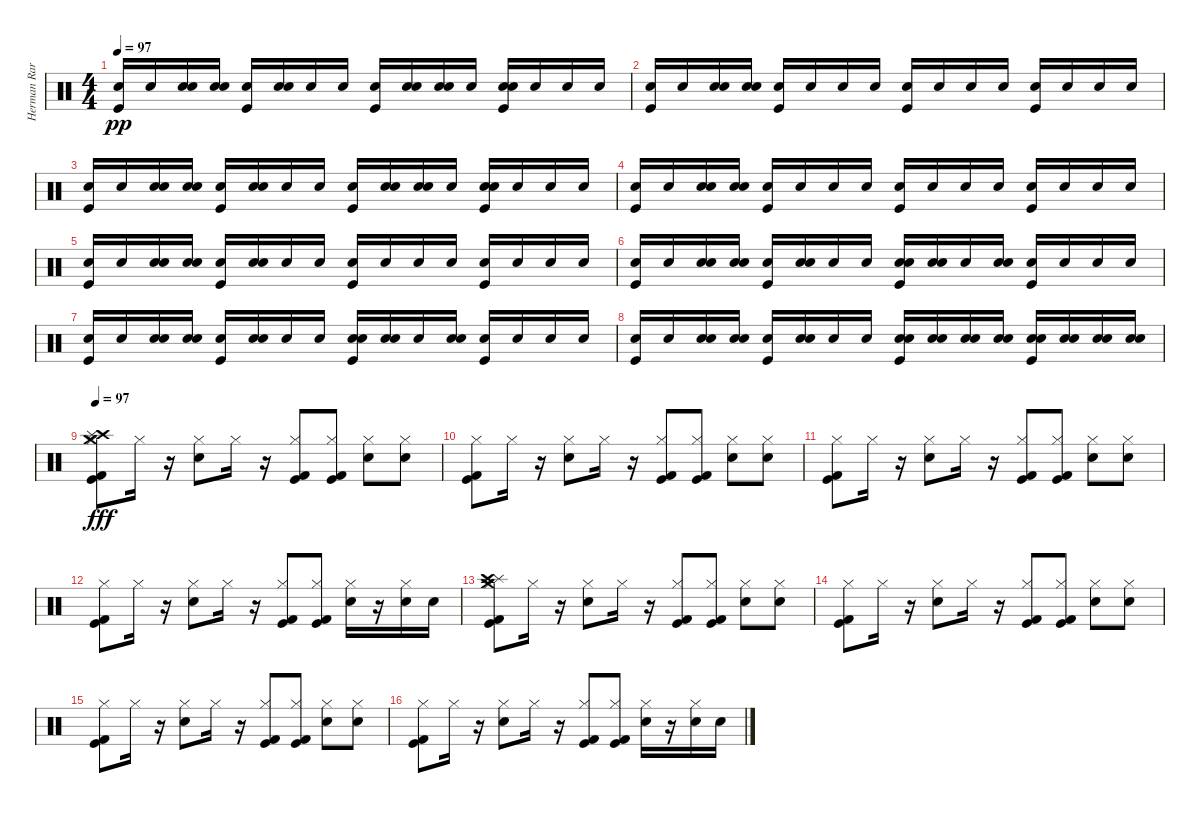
\track ("Herman Rarebell" "Herman Rar") {instrument percussion}
\staff {score}
\articulation defaults
\ts (4 4)
\tempo 97
\clef neutral
\ks c
("Kick (hit)" "Snare (hit) 2").16{dy pp} "Snare (hit) 2".16 ("Electric Snare (hit)" "Snare (hit) 2").16 ("Electric Snare (hit)" "Snare (hit) 2").16 ("Kick (hit)" "Snare (hit) 2").16 ("Electric Snare (hit)" "Snare (hit) 2").16 "Snare (hit) 2".16 "Snare (hit) 2".16 ("Kick (hit)" "Snare (hit) 2").16 ("Electric Snare (hit)" "Snare (hit) 2").16 ("Electric Snare (hit)" "Snare (hit) 2").16 "Snare (hit) 2".16 ("Kick (hit)" "Electric Snare (hit)" "Snare (hit) 2").16 "Snare (hit) 2".16 "Snare (hit) 2".16 "Snare (hit) 2".16 |
("Kick (hit)" "Snare (hit) 2").16 "Snare (hit) 2".16 ("Electric Snare (hit)" "Snare (hit) 2").16 ("Electric Snare (hit)" "Snare (hit) 2").16 ("Kick (hit)" "Snare (hit) 2").16 "Snare (hit) 2".16 "Snare (hit) 2".16 "Snare (hit) 2".16 ("Kick (hit)" "Snare (hit) 2").16 "Snare (hit) 2".16 "Snare (hit) 2".16 "Snare (hit) 2".16 ("Kick (hit)" "Snare (hit) 2").16 "Snare (hit) 2".16 "Snare (hit) 2".16 "Snare (hit) 2".16 |
("Kick (hit)" "Snare (hit) 2").16 "Snare (hit) 2".16 ("Electric Snare (hit)" "Snare (hit) 2").16 ("Electric Snare (hit)" "Snare (hit) 2").16 ("Kick (hit)" "Snare (hit) 2").16 ("Electric Snare (hit)" "Snare (hit) 2").16 "Snare (hit) 2".16 "Snare (hit) 2".16 ("Kick (hit)" "Snare (hit) 2").16 ("Electric Snare (hit)" "Snare (hit) 2").16 ("Electric Snare (hit)" "Snare (hit) 2").16 "Snare (hit) 2".16 ("Kick (hit)" "Electric Snare (hit)" "Snare (hit) 2").16 "Snare (hit) 2".16 "Snare (hit) 2".16 "Snare (hit) 2".16 |
("Kick (hit)" "Snare (hit) 2").16 "Snare (hit) 2".16 ("Electric Snare (hit)" "Snare (hit) 2").16 ("Electric Snare (hit)" "Snare (hit) 2").16 ("Kick (hit)" "Snare (hit) 2").16 "Snare (hit) 2".16 "Snare (hit) 2".16 "Snare (hit) 2".16 ("Kick (hit)" "Snare (hit) 2").16 "Snare (hit) 2".16 "Snare (hit) 2".16 "Snare (hit) 2".16 ("Kick (hit)" "Snare (hit) 2").16 "Snare (hit) 2".16 "Snare (hit) 2".16 "Snare (hit) 2".16 |
("Kick (hit)" "Snare (hit) 2").16 "Snare (hit) 2".16 ("Electric Snare (hit)" "Snare (hit) 2").16 ("Electric Snare (hit)" "Snare (hit) 2").16 ("Kick (hit)" "Snare (hit) 2").16 ("Electric Snare (hit)" "Snare (hit) 2").16 "Snare (hit) 2".16 "Snare (hit) 2".16 ("Kick (hit)" "Snare (hit) 2").16 "Snare (hit) 2".16 "Snare (hit) 2".16 "Snare (hit) 2".16 ("Kick (hit)" "Snare (hit) 2").16 "Snare (hit) 2".16 "Snare (hit) 2".16 "Snare (hit) 2".16 |
("Kick (hit)" "Snare (hit) 2").16 "Snare (hit) 2".16 ("Electric Snare (hit)" "Snare (hit) 2").16 ("Electric Snare (hit)" "Snare (hit) 2").16 ("Kick (hit)" "Snare (hit) 2").16 ("Electric Snare (hit)" "Snare (hit) 2").16 "Snare (hit) 2".16 "Snare (hit) 2".16 ("Kick (hit)" "Electric Snare (hit)" "Snare (hit) 2").16 ("Electric Snare (hit)" "Snare (hit) 2").16 "Snare (hit) 2".16 ("Electric Snare (hit)" "Snare (hit) 2").16 ("Kick (hit)" "Snare (hit) 2").16 "Snare (hit) 2".16 "Snare (hit) 2".16 "Snare (hit) 2".16 |
("Kick (hit)" "Snare (hit) 2").16 "Snare (hit) 2".16 ("Electric Snare (hit)" "Snare (hit) 2").16 ("Electric Snare (hit)" "Snare (hit) 2").16 ("Kick (hit)" "Snare (hit) 2").16 ("Electric Snare (hit)" "Snare (hit) 2").16 "Snare (hit) 2".16 "Snare (hit) 2".16 ("Kick (hit)" "Electric Snare (hit)" "Snare (hit) 2").16 ("Electric Snare (hit)" "Snare (hit) 2").16 "Snare (hit) 2".16 ("Electric Snare (hit)" "Snare (hit) 2").16 ("Kick (hit)" "Snare (hit) 2").16 "Snare (hit) 2".16 "Snare (hit) 2".16 "Snare (hit) 2".16 |
("Kick (hit)" "Snare (hit) 2").16 "Snare (hit) 2".16 ("Electric Snare (hit)" "Snare (hit) 2").16 ("Electric Snare (hit)" "Snare (hit) 2").16 ("Kick (hit)" "Snare (hit) 2").16 ("Electric Snare (hit)" "Snare (hit) 2").16 "Snare (hit) 2".16 "Snare (hit) 2".16 ("Kick (hit)" "Electric Snare (hit)" "Snare (hit) 2").16 ("Electric Snare (hit)" "Snare (hit) 2").16 ("Electric Snare (hit)" "Snare (hit) 2").16 ("Electric Snare (hit)" "Snare (hit) 2").16 ("Kick (hit)" "Electric Snare (hit)" "Snare (hit) 2").16 ("Electric Snare (hit)" "Snare (hit) 2").16 ("Electric Snare (hit)" "Snare (hit) 2").16 ("Electric Snare (hit)" "Snare (hit) 2").16 |
\tempo 97
("Hi-Hat (closed)" "Crash high (hit)" "Splash (hit)" "Crash medium (hit)" "Kick (hit)" "Kick (hit) 2").8{dy fff} "Hi-Hat (closed)".16 r.16 ("Snare (hit) 2" "Hi-Hat (closed)").8 "Hi-Hat (closed)".16 r.16 ("Kick (hit) 2" "Kick (hit)" "Hi-Hat (closed)").8 ("Hi-Hat (closed)" "Kick (hit) 2" "Kick (hit)").8 ("Snare (hit) 2" "Hi-Hat (closed)").8 ("Hi-Hat (closed)" "Snare (hit) 2").8 |
("Kick (hit) 2" "Kick (hit)" "Hi-Hat (closed)").8 "Hi-Hat (closed)".16 r.16 ("Snare (hit) 2" "Hi-Hat (closed)").8 "Hi-Hat (closed)".16 r.16 ("Kick (hit) 2" "Kick (hit)" "Hi-Hat (closed)").8 ("Hi-Hat (closed)" "Kick (hit) 2" "Kick (hit)").8 ("Snare (hit) 2" "Hi-Hat (closed)").8 ("Hi-Hat (closed)" "Snare (hit) 2").8 |
("Kick (hit) 2" "Kick (hit)" "Hi-Hat (closed)").8 "Hi-Hat (closed)".16 r.16 ("Snare (hit) 2" "Hi-Hat (closed)").8 "Hi-Hat (closed)".16 r.16 ("Kick (hit) 2" "Kick (hit)" "Hi-Hat (closed)").8 ("Hi-Hat (closed)" "Kick (hit) 2" "Kick (hit)").8 ("Snare (hit) 2" "Hi-Hat (closed)").8 ("Hi-Hat (closed)" "Snare (hit) 2").8 |
("Kick (hit) 2" "Kick (hit)" "Hi-Hat (closed)").8 "Hi-Hat (closed)".16 r.16 ("Snare (hit) 2" "Hi-Hat (closed)").8 "Hi-Hat (closed)".16 r.16 ("Kick (hit) 2" "Kick (hit)" "Hi-Hat (closed)").8 ("Hi-Hat (closed)" "Kick (hit) 2" "Kick (hit)").8 ("Hi-Hat (closed)" "Snare (hit) 2").16 r.16 ("Hi-Hat (closed)" "Snare (hit) 2").16 "Snare (hit) 2".16 |
("Kick (hit) 2" "Kick (hit)" "Crash medium (hit)" "Splash (hit)" "Crash high (hit)" "Hi-Hat (closed)").8 "Hi-Hat (closed)".16 r.16 ("Snare (hit) 2" "Hi-Hat (closed)").8 "Hi-Hat (closed)".16 r.16 ("Kick (hit) 2" "Kick (hit)" "Hi-Hat (closed)").8 ("Hi-Hat (closed)" "Kick (hit) 2" "Kick (hit)").8 ("Snare (hit) 2" "Hi-Hat (closed)").8 ("Hi-Hat (closed)" "Snare (hit) 2").8 |
("Kick (hit) 2" "Kick (hit)" "Hi-Hat (closed)").8 "Hi-Hat (closed)".16 r.16 ("Snare (hit) 2" "Hi-Hat (closed)").8 "Hi-Hat (closed)".16 r.16 ("Kick (hit) 2" "Kick (hit)" "Hi-Hat (closed)").8 ("Hi-Hat (closed)" "Kick (hit) 2" "Kick (hit)").8 ("Snare (hit) 2" "Hi-Hat (closed)").8 ("Hi-Hat (closed)" "Snare (hit) 2").8 |
("Kick (hit) 2" "Kick (hit)" "Hi-Hat (closed)").8 "Hi-Hat (closed)".16 r.16 ("Snare (hit) 2" "Hi-Hat (closed)").8 "Hi-Hat (closed)".16 r.16 ("Kick (hit) 2" "Kick (hit)" "Hi-Hat (closed)").8 ("Hi-Hat (closed)" "Kick (hit) 2" "Kick (hit)").8 ("Snare (hit) 2" "Hi-Hat (closed)").8 ("Hi-Hat (closed)" "Snare (hit) 2").8 |
("Kick (hit) 2" "Kick (hit)" "Hi-Hat (closed)").8 "Hi-Hat (closed)".16 r.16 ("Snare (hit) 2" "Hi-Hat (closed)").8 "Hi-Hat (closed)".16 r.16 ("Kick (hit) 2" "Kick (hit)" "Hi-Hat (closed)").8 ("Hi-Hat (closed)" "Kick (hit) 2" "Kick (hit)").8 ("Hi-Hat (closed)" "Snare (hit) 2").16 r.16 ("Hi-Hat (closed)" "Snare (hit) 2").16 "Snare (hit) 2".16
